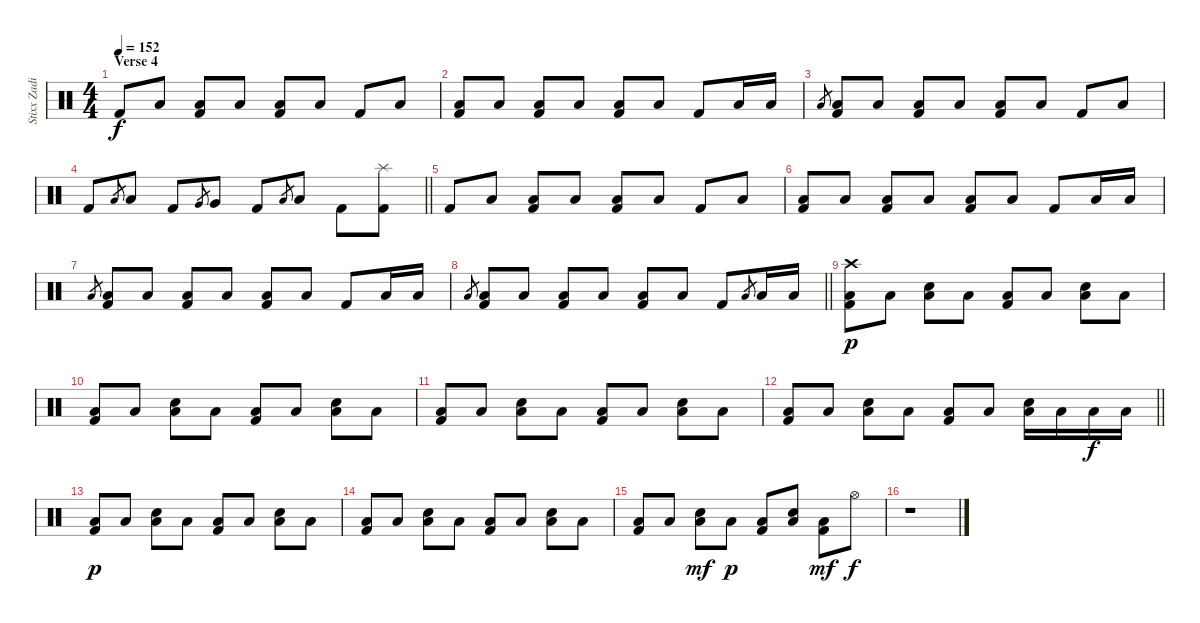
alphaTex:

\track ("Stixx Zadinia (Drums)" "Stixx Zadi") {instrument percussion}
\staff {score}
\articulation defaults
\ts (4 4)
\section ("" "Verse 4")
\tempo 152
\clef neutral
\ks c "Kick (hit) 2".8{dy f} "Low Floor Tom (hit)".8
("Low Floor Tom (hit)" "Kick (hit) 2").8 "Low Floor Tom (hit)".8 ("Low Floor Tom (hit)" "Kick (hit) 2").8 "Low Floor Tom (hit)".8 "Kick (hit) 2".8 "Low Floor Tom (hit)".8 |
("Low Floor Tom (hit)" "Kick (hit) 2").8 "Low Floor Tom (hit)".8 ("Low Floor Tom (hit)" "Kick (hit) 2").8 "Low Floor Tom (hit)".8 ("Low Floor Tom (hit)" "Kick (hit) 2").8 "Low Floor Tom (hit)".8 "Kick (hit) 2".8 "Low Floor Tom (hit)".16 "Low Floor Tom (hit)".16 |
"Low Floor Tom (hit)".8{gr} ("Low Floor Tom (hit)" "Kick (hit) 2").8 "Low Floor Tom (hit)".8 ("Low Floor Tom (hit)" "Kick (hit) 2").8 "Low Floor Tom (hit)".8 ("Low Floor Tom (hit)" "Kick (hit) 2").8 "Low Floor Tom (hit)".8 "Kick (hit) 2".8 "Low Floor Tom (hit)".8 |
\barLineRight lightlight "Kick (hit) 2".8 "Low Tom (hit)".8{gr} "Low Tom (hit)".8 "Kick (hit) 2".8 "Very Low Tom (hit)".8{gr} "Very Low Tom (hit)".8 "Kick (hit) 2".8 "Low Floor Tom (hit)".8{gr} "Low Floor Tom (hit)".8 "Kick (hit) 2".8
("Splash (hit)" "Kick (hit) 2").8 |
"Kick (hit) 2".8 "Low Floor Tom (hit)".8 ("Low Floor Tom (hit)" "Kick (hit) 2").8 "Low Floor Tom (hit)".8 ("Low Floor Tom (hit)" "Kick (hit) 2").8 "Low Floor Tom (hit)".8 "Kick (hit) 2".8 "Low Floor Tom (hit)".8 |
("Low Floor Tom (hit)" "Kick (hit) 2").8 "Low Floor Tom (hit)".8 ("Low Floor Tom (hit)" "Kick (hit) 2").8 "Low Floor Tom (hit)".8 ("Low Floor Tom (hit)" "Kick (hit) 2").8 "Low Floor Tom (hit)".8 "Kick (hit) 2".8 "Low Floor Tom (hit)".16 "Low Floor Tom (hit)".16 |
"Low Floor Tom (hit)".8{gr} ("Low Floor Tom (hit)" "Kick (hit) 2").8 "Low Floor Tom (hit)".8 ("Low Floor Tom (hit)" "Kick (hit) 2").8 "Low Floor Tom (hit)".8 ("Low Floor Tom (hit)" "Kick (hit) 2").8 "Low Floor Tom (hit)".8 "Kick (hit) 2".8 "Low Floor Tom (hit)".16 "Low Floor Tom (hit)".16 |
\barLineRight lightlight "Low Floor Tom (hit)".8{gr}
("Low Floor Tom (hit)" "Kick (hit) 2").8 "Low Floor Tom (hit)".8 ("Low Floor Tom (hit)" "Kick (hit) 2").8 "Low Floor Tom (hit)".8 ("Low Floor Tom (hit)" "Kick (hit) 2").8 "Low Floor Tom (hit)".8 "Kick (hit) 2".8 "Low Floor Tom (hit)".8{gr} "Low Floor Tom (hit)".16 "Low Floor Tom (hit)".16 |
\section ("" "")
("Crash high (hit)" "Low Floor Tom (hit)" "Kick (hit) 2").8{dy p} "Low Floor Tom (hit)".8 ("Low Floor Tom (hit)" "Snare (hit) 2").8 "Low Floor Tom (hit)".8 ("Low Floor Tom (hit)" "Kick (hit) 2").8 "Low Floor Tom (hit)".8 ("Low Floor Tom (hit)" "Snare (hit) 2").8 "Low Floor Tom (hit)".8 |
("Low Floor Tom (hit)" "Kick (hit) 2").8 "Low Floor Tom (hit)".8 ("Low Floor Tom (hit)" "Snare (hit) 2").8 "Low Floor Tom (hit)".8 ("Low Floor Tom (hit)" "Kick (hit) 2").8 "Low Floor Tom (hit)".8 ("Low Floor Tom (hit)" "Snare (hit) 2").8 "Low Floor Tom (hit)".8 |
("Low Floor Tom (hit)" "Kick (hit) 2").8 "Low Floor Tom (hit)".8 ("Low Floor Tom (hit)" "Snare (hit) 2").8 "Low Floor Tom (hit)".8 ("Low Floor Tom (hit)" "Kick (hit) 2").8 "Low Floor Tom (hit)".8 ("Low Floor Tom (hit)" "Snare (hit) 2").8 "Low Floor Tom (hit)".8 |
\barLineRight lightlight
("Low Floor Tom (hit)" "Kick (hit) 2").8 "Low Floor Tom (hit)".8 ("Low Floor Tom (hit)" "Snare (hit) 2").8 "Low Floor Tom (hit)".8 ("Low Floor Tom (hit)" "Kick (hit) 2").8 "Low Floor Tom (hit)".8 ("Low Floor Tom (hit)" "Snare (hit) 2").16 "Low Floor Tom (hit)".16 "Low Floor Tom (hit)".16{dy f} "Low Floor Tom (hit)".16 |
("Low Floor Tom (hit)" "Kick (hit) 2").8{dy p} "Low Floor Tom (hit)".8 ("Low Floor Tom (hit)" "Snare (hit) 2").8 "Low Floor Tom (hit)".8 ("Low Floor Tom (hit)" "Kick (hit) 2").8 "Low Floor Tom (hit)".8 ("Low Floor Tom (hit)" "Snare (hit) 2").8 "Low Floor Tom (hit)".8 |
("Low Floor Tom (hit)" "Kick (hit) 2").8 "Low Floor Tom (hit)".8 ("Low Floor Tom (hit)" "Snare (hit) 2").8 "Low Floor Tom (hit)".8 ("Low Floor Tom (hit)" "Kick (hit) 2").8 "Low Floor Tom (hit)".8 ("Low Floor Tom (hit)" "Snare (hit) 2").8 "Low Floor Tom (hit)".8 |
("Low Floor Tom (hit)" "Kick (hit) 2").8 "Low Floor Tom (hit)".8 ("Low Floor Tom (hit)" "Snare (hit) 2").8{dy mf} "Low Floor Tom (hit)".8{dy p} ("Low Floor Tom (hit)" "Kick (hit) 2").8 ("Low Floor Tom (hit)" "Snare (hit) 2").8 ("Low Floor Tom (hit)" "Kick (hit) 2").8{dy mf} "Hi-Hat (open)".8{dy f} |
r.1
